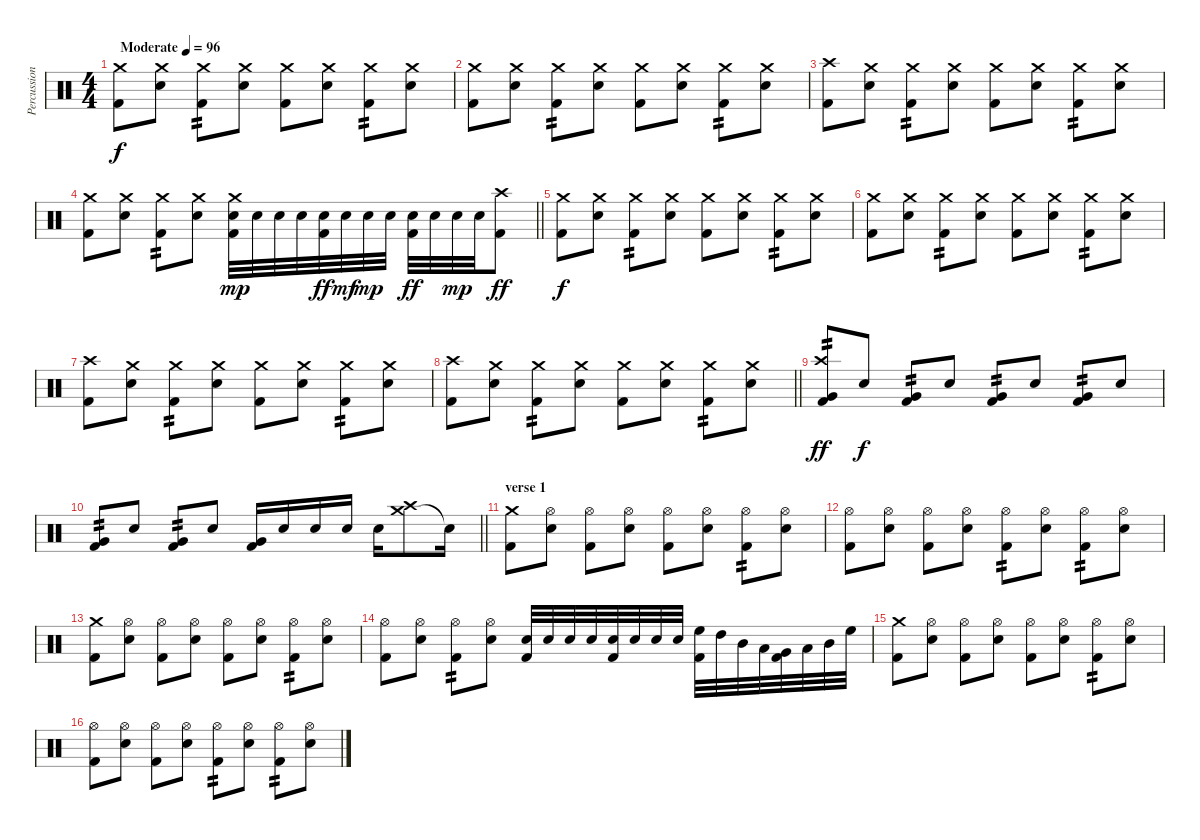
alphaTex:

\track ("Percussion" "Percussion") {instrument percussion}
\staff {score}
\articulation defaults
\ts (4 4)
\tempo (96 "Moderate")
\clef neutral
\ks c
("Crash medium (hit)" "Kick (hit) 2").8{dy f} ("Crash medium (hit)" "Electric Snare (hit)").8 ("Crash medium (hit)" "Kick (hit) 2").8{tp 2} ("Crash medium (hit)" "Electric Snare (hit)").8 ("Crash medium (hit)" "Kick (hit) 2").8 ("Crash medium (hit)" "Electric Snare (hit)").8 ("Crash medium (hit)" "Kick (hit) 2").8{tp 2} ("Crash medium (hit)" "Electric Snare (hit)").8 |
("Crash medium (hit)" "Kick (hit) 2").8 ("Crash medium (hit)" "Electric Snare (hit)").8 ("Crash medium (hit)" "Kick (hit) 2").8{tp 2} ("Crash medium (hit)" "Electric Snare (hit)").8 ("Crash medium (hit)" "Kick (hit) 2").8 ("Crash medium (hit)" "Electric Snare (hit)").8 ("Crash medium (hit)" "Kick (hit) 2").8{tp 2} ("Crash medium (hit)" "Electric Snare (hit)").8 |
("Crash high (hit)" "Kick (hit) 2").8 ("Crash medium (hit)" "Electric Snare (hit)").8 ("Crash medium (hit)" "Kick (hit) 2").8{tp 2} ("Crash medium (hit)" "Electric Snare (hit)").8 ("Crash medium (hit)" "Kick (hit) 2").8 ("Crash medium (hit)" "Electric Snare (hit)").8 ("Crash medium (hit)" "Kick (hit) 2").8{tp 2} ("Crash medium (hit)" "Electric Snare (hit)").8 |
\barLineRight lightlight
("Crash medium (hit)" "Kick (hit) 2").8 ("Crash medium (hit)" "Electric Snare (hit)").8 ("Crash medium (hit)" "Kick (hit) 2").8{tp 2} ("Crash medium (hit)" "Electric Snare (hit)").8 ("Crash medium (hit)" "Electric Snare (hit)" "Kick (hit) 2").32{dy mp} "Electric Snare (hit)".32 "Electric Snare (hit)".32 "Electric Snare (hit)".32 ("Electric Snare (hit)" "Kick (hit) 2").32{dy ff} "Electric Snare (hit)".32{dy mf} "Electric Snare (hit)".32{dy mp} "Electric Snare (hit)".32 ("Electric Snare (hit)" "Kick (hit) 2").32{dy ff} "Electric Snare (hit)".32 "Electric Snare (hit)".32{dy mp} "Electric Snare (hit)".32 ("Crash high (hit)" "Kick (hit) 2").8{dy ff} |
\section ("" "")
("Crash medium (hit)" "Kick (hit) 2").8{dy f} ("Crash medium (hit)" "Electric Snare (hit)").8 ("Crash medium (hit)" "Kick (hit) 2").8{tp 2} ("Crash medium (hit)" "Electric Snare (hit)").8 ("Crash medium (hit)" "Kick (hit) 2").8 ("Crash medium (hit)" "Electric Snare (hit)").8 ("Crash medium (hit)" "Kick (hit) 2").8{tp 2} ("Crash medium (hit)" "Electric Snare (hit)").8 |
("Crash medium (hit)" "Kick (hit) 2").8 ("Crash medium (hit)" "Electric Snare (hit)").8 ("Crash medium (hit)" "Kick (hit) 2").8{tp 2} ("Crash medium (hit)" "Electric Snare (hit)").8 ("Crash medium (hit)" "Kick (hit) 2").8 ("Crash medium (hit)" "Electric Snare (hit)").8 ("Crash medium (hit)" "Kick (hit) 2").8{tp 2} ("Crash medium (hit)" "Electric Snare (hit)").8 |
("Crash high (hit)" "Kick (hit) 2").8 ("Crash medium (hit)" "Electric Snare (hit)").8 ("Crash medium (hit)" "Kick (hit) 2").8{tp 2} ("Crash medium (hit)" "Electric Snare (hit)").8 ("Crash medium (hit)" "Kick (hit) 2").8 ("Crash medium (hit)" "Electric Snare (hit)").8 ("Crash medium (hit)" "Kick (hit) 2").8{tp 2} ("Crash medium (hit)" "Electric Snare (hit)").8 |
\barLineRight lightlight
("Crash high (hit)" "Kick (hit) 2").8 ("Crash medium (hit)" "Electric Snare (hit)").8 ("Crash medium (hit)" "Kick (hit) 2").8{tp 2} ("Crash medium (hit)" "Electric Snare (hit)").8 ("Crash medium (hit)" "Kick (hit) 2").8 ("Crash medium (hit)" "Electric Snare (hit)").8 ("Crash medium (hit)" "Kick (hit) 2").8{tp 2} ("Crash medium (hit)" "Electric Snare (hit)").8 |
\section ("" "")
("Crash high (hit)" "Very Low Tom (hit)" "Kick (hit) 2").8{tp 2 dy ff} "Electric Snare (hit)".8{dy f} ("Very Low Tom (hit)" "Kick (hit) 2").8{tp 2} "Electric Snare (hit)".8 ("Very Low Tom (hit)" "Kick (hit) 2").8{tp 2} "Electric Snare (hit)".8 ("Very Low Tom (hit)" "Kick (hit) 2").8{tp 2} "Electric Snare (hit)".8 |
\barLineRight lightlight
("Very Low Tom (hit)" "Kick (hit) 2").8{tp 2} "Electric Snare (hit)".8 ("Very Low Tom (hit)" "Kick (hit) 2").8{tp 2} "Electric Snare (hit)".8 ("Very Low Tom (hit)" "Kick (hit) 2").16 "Electric Snare (hit)".16 "Electric Snare (hit)".16 "Electric Snare (hit)".16 "Electric Snare (hit)".16 ("Crash medium (hit)" "Crash high (hit)").8 "Snare (hit)"{t}.16 |
\section ("" "verse 1")
("Crash medium (hit)" "Kick (hit) 2").8 ("Hi-Hat (open)" "Electric Snare (hit)").8 ("Hi-Hat (open)" "Kick (hit) 2").8 ("Hi-Hat (open)" "Electric Snare (hit)").8 ("Hi-Hat (open)" "Kick (hit) 2").8 ("Hi-Hat (open)" "Electric Snare (hit)").8 ("Hi-Hat (open)" "Kick (hit) 2").8{tp 2} ("Hi-Hat (open)" "Electric Snare (hit)").8 |
("Hi-Hat (open)" "Kick (hit) 2").8 ("Hi-Hat (open)" "Electric Snare (hit)").8 ("Hi-Hat (open)" "Kick (hit) 2").8 ("Hi-Hat (open)" "Electric Snare (hit)").8 ("Hi-Hat (open)" "Kick (hit) 2").8{tp 2} ("Hi-Hat (open)" "Electric Snare (hit)").8 ("Hi-Hat (open)" "Kick (hit) 2").8{tp 2} ("Hi-Hat (open)" "Electric Snare (hit)").8 |
("Crash medium (hit)" "Kick (hit) 2").8 ("Hi-Hat (open)" "Electric Snare (hit)").8 ("Hi-Hat (open)" "Kick (hit) 2").8 ("Hi-Hat (open)" "Electric Snare (hit)").8 ("Hi-Hat (open)" "Kick (hit) 2").8 ("Hi-Hat (open)" "Electric Snare (hit)").8 ("Hi-Hat (open)" "Kick (hit) 2").8{tp 2} ("Hi-Hat (open)" "Electric Snare (hit)").8 |
("Hi-Hat (open)" "Kick (hit) 2").8 ("Hi-Hat (open)" "Electric Snare (hit)").8 ("Hi-Hat (open)" "Kick (hit) 2").8{tp 2} ("Hi-Hat (open)" "Electric Snare (hit)").8 ("Electric Snare (hit)" "Kick (hit) 2").32 "Electric Snare (hit)".32 "Electric Snare (hit)".32 "Electric Snare (hit)".32 ("Electric Snare (hit)" "Kick (hit) 2").32 "Electric Snare (hit)".32 "Electric Snare (hit)".32 "Electric Snare (hit)".32 ("High Floor Tom (hit)" "Kick (hit) 2").32 "High Tom (hit)".32 "Mid Tom (hit)".32 "Low Tom (hit)".32 ("Very Low Tom (hit)" "Kick (hit) 2").32 "Low Tom (hit)".32 "Mid Tom (hit)".32 "High Floor Tom (hit)".32 |
("Crash medium (hit)" "Kick (hit) 2").8 ("Hi-Hat (open)" "Electric Snare (hit)").8 ("Hi-Hat (open)" "Kick (hit) 2").8 ("Hi-Hat (open)" "Electric Snare (hit)").8 ("Hi-Hat (open)" "Kick (hit) 2").8 ("Hi-Hat (open)" "Electric Snare (hit)").8 ("Hi-Hat (open)" "Kick (hit) 2").8{tp 2} ("Hi-Hat (open)" "Electric Snare (hit)").8 |
("Hi-Hat (open)" "Kick (hit) 2").8 ("Hi-Hat (open)" "Electric Snare (hit)").8 ("Hi-Hat (open)" "Kick (hit) 2").8 ("Hi-Hat (open)" "Electric Snare (hit)").8 ("Hi-Hat (open)" "Kick (hit) 2").8{tp 2} ("Hi-Hat (open)" "Electric Snare (hit)").8 ("Hi-Hat (open)" "Kick (hit) 2").8{tp 2} ("Hi-Hat (open)" "Electric Snare (hit)").8
